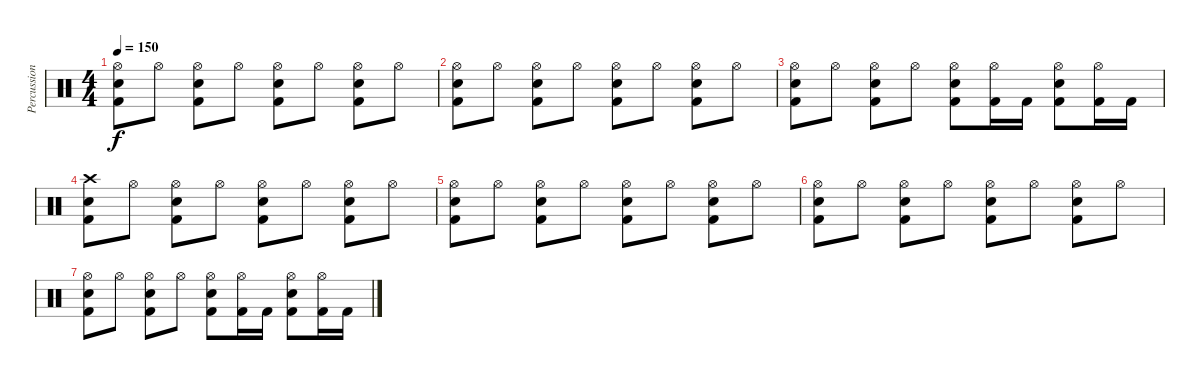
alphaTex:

\track ("Percussion" "Percussion") {instrument percussion}
\staff {score}
\articulation defaults
\ts (4 4)
\tempo 150
\clef neutral
\ks c
("Hi-Hat (open)" "Snare (hit) 2" "Kick (hit) 2").8{dy f} "Hi-Hat (open)".8 ("Hi-Hat (open)" "Snare (hit) 2" "Kick (hit) 2").8 "Hi-Hat (open)".8 ("Hi-Hat (open)" "Snare (hit) 2" "Kick (hit) 2").8 "Hi-Hat (open)".8 ("Hi-Hat (open)" "Snare (hit) 2" "Kick (hit) 2").8 "Hi-Hat (open)".8 |
("Hi-Hat (open)" "Snare (hit) 2" "Kick (hit) 2").8 "Hi-Hat (open)".8 ("Hi-Hat (open)" "Snare (hit) 2" "Kick (hit) 2").8 "Hi-Hat (open)".8 ("Hi-Hat (open)" "Snare (hit) 2" "Kick (hit) 2").8 "Hi-Hat (open)".8 ("Hi-Hat (open)" "Snare (hit) 2" "Kick (hit) 2").8 "Hi-Hat (open)".8 |
("Hi-Hat (open)" "Snare (hit) 2" "Kick (hit) 2").8 "Hi-Hat (open)".8 ("Hi-Hat (open)" "Snare (hit) 2" "Kick (hit) 2").8 "Hi-Hat (open)".8 ("Hi-Hat (open)" "Snare (hit) 2" "Kick (hit) 2").8 ("Hi-Hat (open)" "Kick (hit) 2").16 "Kick (hit) 2".16 ("Hi-Hat (open)" "Snare (hit) 2" "Kick (hit) 2").8 ("Hi-Hat (open)" "Kick (hit) 2").16 "Kick (hit) 2".16 |
("Crash high (hit)" "Snare (hit) 2" "Kick (hit) 2").8 "Hi-Hat (open)".8 ("Hi-Hat (open)" "Snare (hit) 2" "Kick (hit) 2").8 "Hi-Hat (open)".8 ("Hi-Hat (open)" "Snare (hit) 2" "Kick (hit) 2").8 "Hi-Hat (open)".8 ("Hi-Hat (open)" "Snare (hit) 2" "Kick (hit) 2").8 "Hi-Hat (open)".8 |
("Hi-Hat (open)" "Snare (hit) 2" "Kick (hit) 2").8 "Hi-Hat (open)".8 ("Hi-Hat (open)" "Snare (hit) 2" "Kick (hit) 2").8 "Hi-Hat (open)".8 ("Hi-Hat (open)" "Snare (hit) 2" "Kick (hit) 2").8 "Hi-Hat (open)".8 ("Hi-Hat (open)" "Snare (hit) 2" "Kick (hit) 2").8 "Hi-Hat (open)".8 |
("Hi-Hat (open)" "Snare (hit) 2" "Kick (hit) 2").8 "Hi-Hat (open)".8 ("Hi-Hat (open)" "Snare (hit) 2" "Kick (hit) 2").8 "Hi-Hat (open)".8 ("Hi-Hat (open)" "Snare (hit) 2" "Kick (hit) 2").8 "Hi-Hat (open)".8 ("Hi-Hat (open)" "Snare (hit) 2" "Kick (hit) 2").8 "Hi-Hat (open)".8 |
("Hi-Hat (open)" "Snare (hit) 2" "Kick (hit) 2").8 "Hi-Hat (open)".8 ("Hi-Hat (open)" "Snare (hit) 2" "Kick (hit) 2").8 "Hi-Hat (open)".8 ("Hi-Hat (open)" "Snare (hit) 2" "Kick (hit) 2").8 ("Hi-Hat (open)" "Kick (hit) 2").16 "Kick (hit) 2".16 ("Hi-Hat (open)" "Snare (hit) 2" "Kick (hit) 2").8 ("Hi-Hat (open)" "Kick (hit) 2").16 "Kick (hit) 2".16
